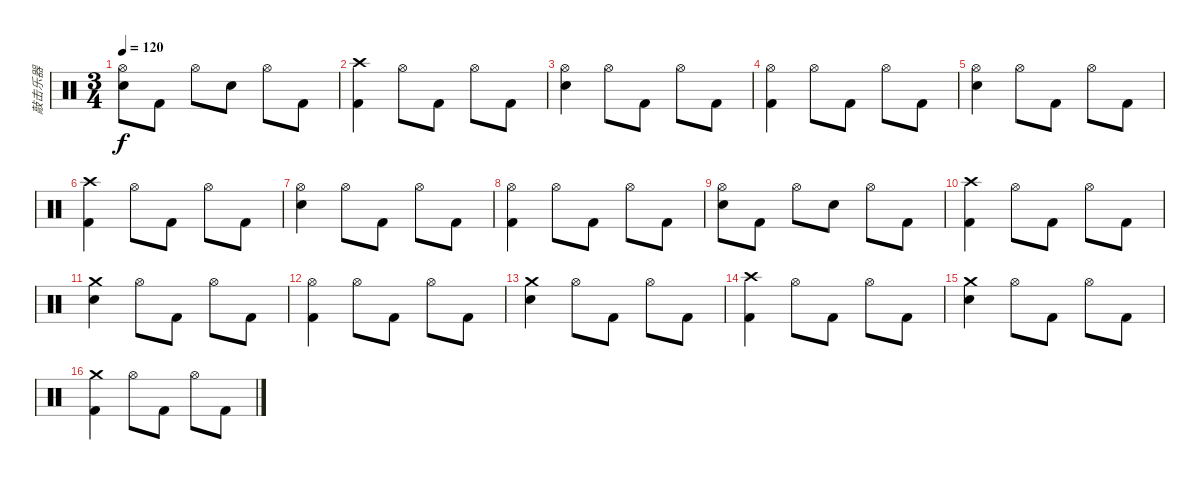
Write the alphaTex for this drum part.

\track ("敲击乐器" "敲击乐器") {instrument percussion}
\staff {score}
\articulation defaults
\ts (3 4)
\tempo 120
\clef neutral
\ks c
("Hi-Hat (open)" "Snare (hit) 2").8{dy f} "Kick (hit) 2".8 "Hi-Hat (open)".8 "Snare (hit) 2".8 "Hi-Hat (open)".8 "Kick (hit) 2".8 |
("Crash high (hit)" "Kick (hit) 2").4 "Hi-Hat (open)".8 "Kick (hit) 2".8 "Hi-Hat (open)".8 "Kick (hit) 2".8 |
("Hi-Hat (open)" "Snare (hit) 2").4 "Hi-Hat (open)".8 "Kick (hit) 2".8 "Hi-Hat (open)".8 "Kick (hit) 2".8 |
("Hi-Hat (open)" "Kick (hit) 2").4 "Hi-Hat (open)".8 "Kick (hit) 2".8 "Hi-Hat (open)".8 "Kick (hit) 2".8 |
("Hi-Hat (open)" "Snare (hit) 2").4 "Hi-Hat (open)".8 "Kick (hit) 2".8 "Hi-Hat (open)".8 "Kick (hit) 2".8 |
("Crash high (hit)" "Kick (hit) 2").4 "Hi-Hat (open)".8 "Kick (hit) 2".8 "Hi-Hat (open)".8 "Kick (hit) 2".8 |
("Hi-Hat (open)" "Snare (hit) 2").4 "Hi-Hat (open)".8 "Kick (hit) 2".8 "Hi-Hat (open)".8 "Kick (hit) 2".8 |
("Hi-Hat (open)" "Kick (hit) 2").4 "Hi-Hat (open)".8 "Kick (hit) 2".8 "Hi-Hat (open)".8 "Kick (hit) 2".8 |
("Hi-Hat (open)" "Snare (hit) 2").8 "Kick (hit) 2".8 "Hi-Hat (open)".8 "Snare (hit) 2".8 "Hi-Hat (open)".8 "Kick (hit) 2".8 |
("Crash high (hit)" "Kick (hit) 2").4 "Hi-Hat (open)".8 "Kick (hit) 2".8 "Hi-Hat (open)".8 "Kick (hit) 2".8 |
("Crash medium (hit)" "Snare (hit) 2").4 "Hi-Hat (open)".8 "Kick (hit) 2".8 "Hi-Hat (open)".8 "Kick (hit) 2".8 |
("Hi-Hat (open)" "Kick (hit) 2").4 "Hi-Hat (open)".8 "Kick (hit) 2".8 "Hi-Hat (open)".8 "Kick (hit) 2".8 |
("Crash medium (hit)" "Snare (hit) 2").4 "Hi-Hat (open)".8 "Kick (hit) 2".8 "Hi-Hat (open)".8 "Kick (hit) 2".8 |
("Crash high (hit)" "Kick (hit) 2").4 "Hi-Hat (open)".8 "Kick (hit) 2".8 "Hi-Hat (open)".8 "Kick (hit) 2".8 |
("Crash medium (hit)" "Snare (hit) 2").4 "Hi-Hat (open)".8 "Kick (hit) 2".8 "Hi-Hat (open)".8 "Kick (hit) 2".8 |
("Crash medium (hit)" "Kick (hit) 2").4 "Hi-Hat (open)".8 "Kick (hit) 2".8 "Hi-Hat (open)".8 "Kick (hit) 2".8
